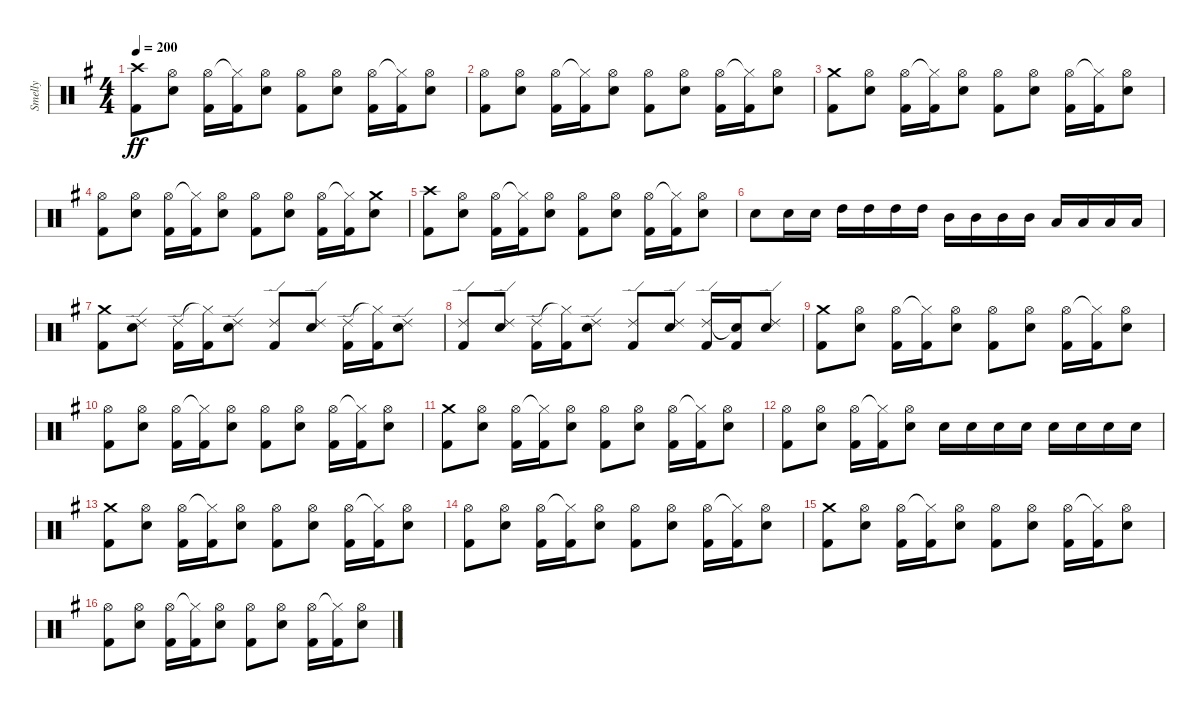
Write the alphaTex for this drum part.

\track ("Smelly" "Smelly") {instrument percussion}
\staff {score}
\articulation defaults
\ts (4 4)
\tempo 200
\clef neutral
\ks eminor
("Crash high (hit)" "Kick (hit) 2").8{dy ff} ("Hi-Hat (open)" "Electric Snare (hit)").8 ("Hi-Hat (open)" "Kick (hit) 2").16 ("Hi-Hat (closed)"{t} "Kick (hit) 2").16 ("Hi-Hat (open)" "Electric Snare (hit)").8 ("Hi-Hat (open)" "Kick (hit) 2").8 ("Hi-Hat (open)" "Electric Snare (hit)").8 ("Hi-Hat (open)" "Kick (hit) 2").16 ("Hi-Hat (closed)"{t} "Kick (hit) 2").16 ("Hi-Hat (open)" "Electric Snare (hit)").8 |
("Hi-Hat (open)" "Kick (hit) 2").8 ("Hi-Hat (open)" "Electric Snare (hit)").8 ("Hi-Hat (open)" "Kick (hit) 2").16 ("Hi-Hat (closed)"{t} "Kick (hit) 2").16 ("Hi-Hat (open)" "Electric Snare (hit)").8 ("Hi-Hat (open)" "Kick (hit) 2").8 ("Hi-Hat (open)" "Electric Snare (hit)").8 ("Hi-Hat (open)" "Kick (hit) 2").16 ("Hi-Hat (closed)"{t} "Kick (hit) 2").16 ("Hi-Hat (open)" "Electric Snare (hit)").8 |
("Crash medium (hit)" "Kick (hit) 2").8 ("Hi-Hat (open)" "Electric Snare (hit)").8 ("Hi-Hat (open)" "Kick (hit) 2").16 ("Hi-Hat (closed)"{t} "Kick (hit) 2").16 ("Hi-Hat (open)" "Electric Snare (hit)").8 ("Hi-Hat (open)" "Kick (hit) 2").8 ("Hi-Hat (open)" "Electric Snare (hit)").8 ("Hi-Hat (open)" "Kick (hit) 2").16 ("Hi-Hat (closed)"{t} "Kick (hit) 2").16 ("Hi-Hat (open)" "Electric Snare (hit)").8 |
("Hi-Hat (open)" "Kick (hit) 2").8 ("Hi-Hat (open)" "Electric Snare (hit)").8 ("Hi-Hat (open)" "Kick (hit) 2").16 ("Hi-Hat (closed)"{t} "Kick (hit) 2").16 ("Hi-Hat (open)" "Electric Snare (hit)").8 ("Hi-Hat (open)" "Kick (hit) 2").8 ("Hi-Hat (open)" "Electric Snare (hit)").8 ("Hi-Hat (open)" "Kick (hit) 2").16 ("Hi-Hat (closed)"{t} "Kick (hit) 2").16 ("Crash medium (hit)" "Electric Snare (hit)").8 |
("Crash high (hit)" "Kick (hit) 2").8 ("Hi-Hat (open)" "Electric Snare (hit)").8 ("Hi-Hat (open)" "Kick (hit) 2").16 ("Hi-Hat (closed)"{t} "Kick (hit) 2").16 ("Hi-Hat (open)" "Electric Snare (hit)").8 ("Hi-Hat (open)" "Kick (hit) 2").8 ("Hi-Hat (open)" "Electric Snare (hit)").8 ("Hi-Hat (open)" "Kick (hit) 2").16 ("Hi-Hat (closed)"{t} "Kick (hit) 2").16 ("Hi-Hat (open)" "Electric Snare (hit)").8 |
"Electric Snare (hit)".8 "Electric Snare (hit)".16 "Electric Snare (hit)".16 "High Tom (hit)".16 "High Tom (hit)".16 "High Tom (hit)".16 "High Tom (hit)".16 "Mid Tom (hit)".16 "Mid Tom (hit)".16 "Mid Tom (hit)".16 "Mid Tom (hit)".16 "Low Tom (hit)".16 "Low Tom (hit)".16 "Low Tom (hit)".16 "Low Tom (hit)".16 |
("Crash medium (hit)" "Kick (hit) 2").8 ("Ride (edge) 2" "Electric Snare (hit)").8 ("Ride (edge) 2" "Kick (hit) 2").16 ("Hi-Hat (closed)"{t} "Kick (hit) 2").16 ("Ride (edge) 2" "Electric Snare (hit)").8 ("Ride (edge) 2" "Kick (hit) 2").8 ("Ride (edge) 2" "Electric Snare (hit)").8 ("Ride (edge) 2" "Kick (hit) 2").16 ("Hi-Hat (closed)"{t} "Kick (hit) 2").16 ("Ride (edge) 2" "Electric Snare (hit)").8 |
("Ride (edge) 2" "Kick (hit) 2").8 ("Ride (edge) 2" "Electric Snare (hit)").8 ("Ride (edge) 2" "Kick (hit) 2").16 ("Hi-Hat (closed)"{t} "Kick (hit) 2").16 ("Ride (edge) 2" "Electric Snare (hit)").8 ("Ride (edge) 2" "Kick (hit) 2").8 ("Ride (edge) 2" "Electric Snare (hit)").8 ("Ride (edge) 2" "Kick (hit) 2").16 ("Snare (hit)"{t} "Kick (hit) 2").16 ("Ride (edge) 2" "Electric Snare (hit)").8 |
("Crash medium (hit)" "Kick (hit) 2").8 ("Hi-Hat (open)" "Electric Snare (hit)").8 ("Hi-Hat (open)" "Kick (hit) 2").16 ("Hi-Hat (closed)"{t} "Kick (hit) 2").16 ("Hi-Hat (open)" "Electric Snare (hit)").8 ("Hi-Hat (open)" "Kick (hit) 2").8 ("Hi-Hat (open)" "Electric Snare (hit)").8 ("Hi-Hat (open)" "Kick (hit) 2").16 ("Hi-Hat (closed)"{t} "Kick (hit) 2").16 ("Hi-Hat (open)" "Electric Snare (hit)").8 |
("Hi-Hat (open)" "Kick (hit) 2").8 ("Hi-Hat (open)" "Electric Snare (hit)").8 ("Hi-Hat (open)" "Kick (hit) 2").16 ("Hi-Hat (closed)"{t} "Kick (hit) 2").16 ("Hi-Hat (open)" "Electric Snare (hit)").8 ("Hi-Hat (open)" "Kick (hit) 2").8 ("Hi-Hat (open)" "Electric Snare (hit)").8 ("Hi-Hat (open)" "Kick (hit) 2").16 ("Hi-Hat (closed)"{t} "Kick (hit) 2").16 ("Hi-Hat (open)" "Electric Snare (hit)").8 |
("Crash medium (hit)" "Kick (hit) 2").8 ("Hi-Hat (open)" "Electric Snare (hit)").8 ("Hi-Hat (open)" "Kick (hit) 2").16 ("Hi-Hat (closed)"{t} "Kick (hit) 2").16 ("Hi-Hat (open)" "Electric Snare (hit)").8 ("Hi-Hat (open)" "Kick (hit) 2").8 ("Hi-Hat (open)" "Electric Snare (hit)").8 ("Hi-Hat (open)" "Kick (hit) 2").16 ("Hi-Hat (closed)"{t} "Kick (hit) 2").16 ("Hi-Hat (open)" "Electric Snare (hit)").8 |
("Hi-Hat (open)" "Kick (hit) 2").8 ("Hi-Hat (open)" "Electric Snare (hit)").8 ("Hi-Hat (open)" "Kick (hit) 2").16 ("Hi-Hat (closed)"{t} "Kick (hit) 2").16 ("Hi-Hat (open)" "Electric Snare (hit)").8 "Electric Snare (hit)".16 "Electric Snare (hit)".16 "Electric Snare (hit)".16 "Electric Snare (hit)".16 "Electric Snare (hit)".16 "Electric Snare (hit)".16 "Electric Snare (hit)".16 "Electric Snare (hit)".16 |
("Crash medium (hit)" "Kick (hit) 2").8 ("Hi-Hat (open)" "Electric Snare (hit)").8 ("Hi-Hat (open)" "Kick (hit) 2").16 ("Hi-Hat (closed)"{t} "Kick (hit) 2").16 ("Hi-Hat (open)" "Electric Snare (hit)").8 ("Hi-Hat (open)" "Kick (hit) 2").8 ("Hi-Hat (open)" "Electric Snare (hit)").8 ("Hi-Hat (open)" "Kick (hit) 2").16 ("Hi-Hat (closed)"{t} "Kick (hit) 2").16 ("Hi-Hat (open)" "Electric Snare (hit)").8 |
("Hi-Hat (open)" "Kick (hit) 2").8 ("Hi-Hat (open)" "Electric Snare (hit)").8 ("Hi-Hat (open)" "Kick (hit) 2").16 ("Hi-Hat (closed)"{t} "Kick (hit) 2").16 ("Hi-Hat (open)" "Electric Snare (hit)").8 ("Hi-Hat (open)" "Kick (hit) 2").8 ("Hi-Hat (open)" "Electric Snare (hit)").8 ("Hi-Hat (open)" "Kick (hit) 2").16 ("Hi-Hat (closed)"{t} "Kick (hit) 2").16 ("Hi-Hat (open)" "Electric Snare (hit)").8 |
("Crash medium (hit)" "Kick (hit) 2").8 ("Hi-Hat (open)" "Electric Snare (hit)").8 ("Hi-Hat (open)" "Kick (hit) 2").16 ("Hi-Hat (closed)"{t} "Kick (hit) 2").16 ("Hi-Hat (open)" "Electric Snare (hit)").8 ("Hi-Hat (open)" "Kick (hit) 2").8 ("Hi-Hat (open)" "Electric Snare (hit)").8 ("Hi-Hat (open)" "Kick (hit) 2").16 ("Hi-Hat (closed)"{t} "Kick (hit) 2").16 ("Hi-Hat (open)" "Electric Snare (hit)").8 |
("Hi-Hat (open)" "Kick (hit) 2").8 ("Hi-Hat (open)" "Electric Snare (hit)").8 ("Hi-Hat (open)" "Kick (hit) 2").16 ("Hi-Hat (closed)"{t} "Kick (hit) 2").16 ("Hi-Hat (open)" "Electric Snare (hit)").8 ("Hi-Hat (open)" "Kick (hit) 2").8 ("Hi-Hat (open)" "Electric Snare (hit)").8 ("Hi-Hat (open)" "Kick (hit) 2").16 ("Hi-Hat (closed)"{t} "Kick (hit) 2").16 ("Hi-Hat (open)" "Electric Snare (hit)").8
